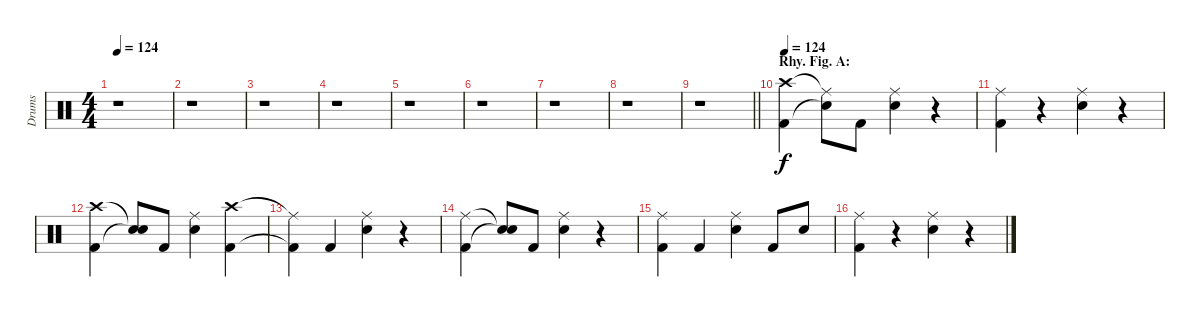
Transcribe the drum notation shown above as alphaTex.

\track ("Drums" "Drums") {instrument percussion}
\staff {score}
\articulation defaults
\ts (4 4)
\tempo 124
\clef neutral
\ks c
r.1{dy f} |
r.1 |
r.1 |
r.1 |
r.1 |
r.1 |
r.1 |
r.1 |
\barLineRight lightlight
r.1 |
\section ("" "Rhy. Fig. A:")
\tempo 124
("Crash high (hit)" "Kick (hit) 2").4 ("Ride (middle)"{t} "Snare (hit)"{t}).8 "Kick (hit) 2".8 ("Ride (middle)" "Electric Snare (hit)").4 r.4 |
("Ride (middle)" "Kick (hit) 2").4 r.4 ("Ride (middle)" "Electric Snare (hit)").4 r.4 |
("Crash high (hit)" "Kick (hit) 2").4 ("Snare (hit)"{t} "Snare (hit)"{t}).8 "Kick (hit) 2".8 ("Ride (middle)" "Electric Snare (hit)").4 ("Crash high (hit)" "Kick (hit) 2").4 |
("Ride (middle)"{t} "Kick (hit) 2"{t}).4 "Kick (hit) 2".4 ("Ride (middle)" "Electric Snare (hit)").4 r.4 |
("Ride (middle)" "Kick (hit) 2").4 ("Snare (hit)"{t} "Snare (hit)"{t}).8 "Kick (hit) 2".8 ("Ride (middle)" "Electric Snare (hit)").4 r.4 |
("Ride (middle)" "Kick (hit) 2").4 "Kick (hit) 2".4 ("Ride (middle)" "Electric Snare (hit)").4 "Kick (hit) 2".8 "Electric Snare (hit)".8 |
("Ride (middle)" "Kick (hit) 2").4 r.4 ("Ride (middle)" "Electric Snare (hit)").4 r.4
